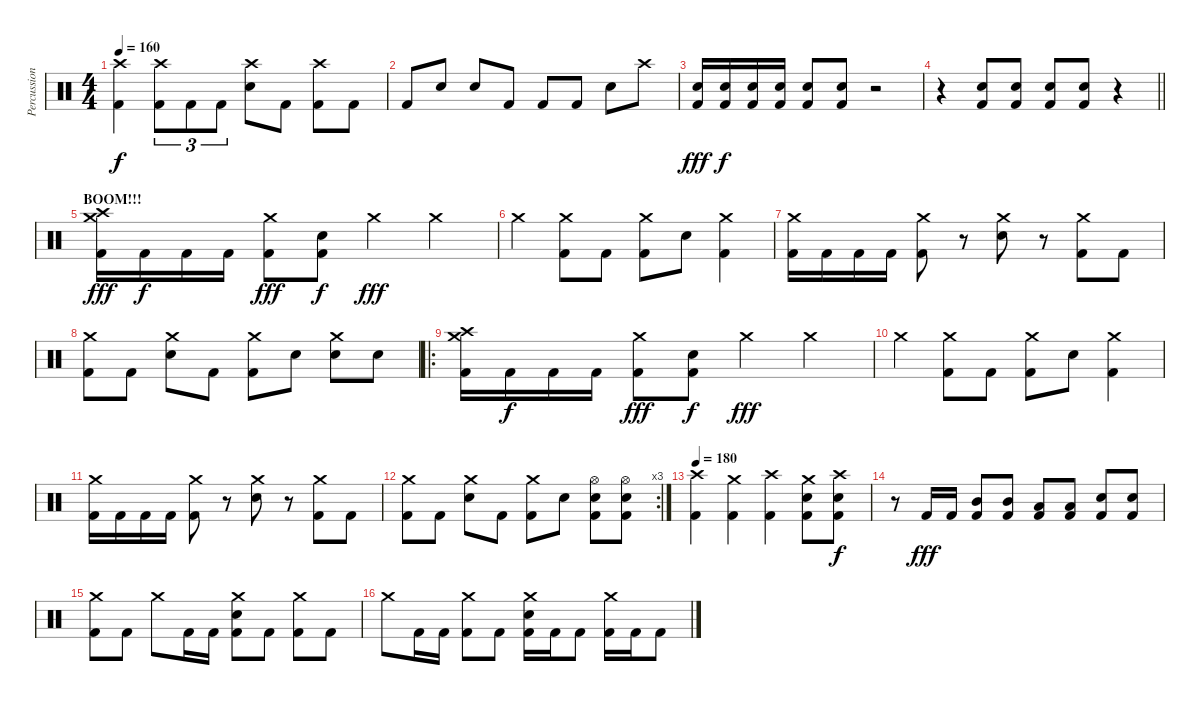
\track ("Percussion" "Percussion") {instrument percussion}
\staff {score}
\articulation defaults
\ts (4 4)
\tempo 160
\clef neutral
\ks c
("Crash high (hit)" "Kick (hit) 2").4{dy f} ("Crash high (hit)" "Kick (hit) 2").8{tu (3 2)} "Kick (hit) 2".8{tu (3 2)} "Kick (hit) 2".8{tu (3 2)} ("Crash high (hit)" "Electric Snare (hit)").8 "Kick (hit) 2".8 ("Crash high (hit)" "Kick (hit) 2").8 "Kick (hit) 2".8 |
"Kick (hit) 2".8 "Electric Snare (hit)".8 "Electric Snare (hit)".8 "Kick (hit) 2".8 "Kick (hit) 2".8 "Kick (hit) 2".8 "Electric Snare (hit)".8 "Crash high (hit)".8 |
("Electric Snare (hit)" "Kick (hit) 2").16{dy fff} ("Electric Snare (hit)" "Kick (hit) 2").16{dy f} ("Electric Snare (hit)" "Kick (hit) 2").16 ("Electric Snare (hit)" "Kick (hit) 2").16 ("Electric Snare (hit)" "Kick (hit) 2").8 ("Electric Snare (hit)" "Kick (hit) 2").8 r.2 |
\barLineRight lightlight
r.4 ("Electric Snare (hit)" "Kick (hit) 2").8 ("Electric Snare (hit)" "Kick (hit) 2").8 ("Electric Snare (hit)" "Kick (hit) 2").8 ("Electric Snare (hit)" "Kick (hit) 2").8 r.4 |
\section ("" "BOOM!!!")
("Crash medium (hit)" "Crash high (hit)" "Kick (hit) 2").16{dy fff} "Kick (hit) 2".16{dy f} "Kick (hit) 2".16 "Kick (hit) 2".16 ("Crash medium (hit)" "Kick (hit) 2").8{dy fff} ("Electric Snare (hit)" "Kick (hit) 2").8{dy f} "Crash medium (hit)".4{dy fff} "Crash medium (hit)".4 |
"Crash medium (hit)".4 ("Crash medium (hit)" "Kick (hit) 2").8 "Kick (hit) 2".8 ("Crash medium (hit)" "Kick (hit) 2").8 "Electric Snare (hit)".8 ("Crash medium (hit)" "Kick (hit) 2").4 |
("Crash medium (hit)" "Kick (hit) 2").16 "Kick (hit) 2".16 "Kick (hit) 2".16 "Kick (hit) 2".16 ("Crash medium (hit)" "Kick (hit) 2").8 r.8 ("Crash medium (hit)" "Electric Snare (hit)").8 r.8 ("Crash medium (hit)" "Kick (hit) 2").8 "Kick (hit) 2".8 |
("Crash medium (hit)" "Kick (hit) 2").8 "Kick (hit) 2".8 ("Crash medium (hit)" "Electric Snare (hit)").8 "Kick (hit) 2".8 ("Crash medium (hit)" "Kick (hit) 2").8 "Electric Snare (hit)".8 ("Crash medium (hit)" "Electric Snare (hit)").8 "Electric Snare (hit)".8 |
\ro
("Crash medium (hit)" "Crash high (hit)" "Kick (hit) 2").16 "Kick (hit) 2".16{dy f} "Kick (hit) 2".16 "Kick (hit) 2".16 ("Crash medium (hit)" "Kick (hit) 2").8{dy fff} ("Electric Snare (hit)" "Kick (hit) 2").8{dy f} "Crash medium (hit)".4{dy fff} "Crash medium (hit)".4 |
"Crash medium (hit)".4 ("Crash medium (hit)" "Kick (hit) 2").8 "Kick (hit) 2".8 ("Crash medium (hit)" "Kick (hit) 2").8 "Electric Snare (hit)".8 ("Crash medium (hit)" "Kick (hit) 2").4 |
("Crash medium (hit)" "Kick (hit) 2").16 "Kick (hit) 2".16 "Kick (hit) 2".16 "Kick (hit) 2".16 ("Crash medium (hit)" "Kick (hit) 2").8 r.8 ("Crash medium (hit)" "Electric Snare (hit)").8 r.8 ("Crash medium (hit)" "Kick (hit) 2").8 "Kick (hit) 2".8 |
\rc 3
("Crash medium (hit)" "Kick (hit) 2").8 "Kick (hit) 2".8 ("Crash medium (hit)" "Electric Snare (hit)").8 "Kick (hit) 2".8 ("Crash medium (hit)" "Kick (hit) 2").8 "Electric Snare (hit)".8 ("Hi-Hat (open)" "Electric Snare (hit)" "Kick (hit) 2").8 ("Hi-Hat (open)" "Electric Snare (hit)" "Kick (hit) 2").8 |
\tempo 180
("Crash high (hit)" "Kick (hit) 2").4 ("Crash medium (hit)" "Kick (hit) 2").4 ("Crash high (hit)" "Kick (hit) 2").4 ("Crash medium (hit)" "Electric Snare (hit)" "Kick (hit) 2").8 ("Crash high (hit)" "Electric Snare (hit)" "Kick (hit) 2").8{dy f} |
r.8 "Kick (hit) 2".16{dy fff} "Kick (hit) 2".16 ("Mid Tom (hit)" "Kick (hit) 2").8 ("Mid Tom (hit)" "Kick (hit) 2").8 ("Low Tom (hit)" "Kick (hit) 2").8 ("Low Tom (hit)" "Kick (hit) 2").8 ("Electric Snare (hit)" "Kick (hit) 2").8 ("Electric Snare (hit)" "Kick (hit) 2").8 |
("Crash medium (hit)" "Kick (hit) 2").8 "Kick (hit) 2".8 "Crash medium (hit)".8 "Kick (hit) 2".16 "Kick (hit) 2".16 ("Crash medium (hit)" "Electric Snare (hit)" "Kick (hit) 2").8 "Kick (hit) 2".8 ("Crash medium (hit)" "Kick (hit) 2").8 "Kick (hit) 2".8 |
"Crash medium (hit)".8 "Kick (hit) 2".16 "Kick (hit) 2".16 ("Crash medium (hit)" "Kick (hit) 2").8 "Kick (hit) 2".8 ("Crash medium (hit)" "Electric Snare (hit)" "Kick (hit) 2").16 "Kick (hit) 2".16 "Kick (hit) 2".8 ("Crash medium (hit)" "Kick (hit) 2").16 "Kick (hit) 2".16 "Kick (hit) 2".8
